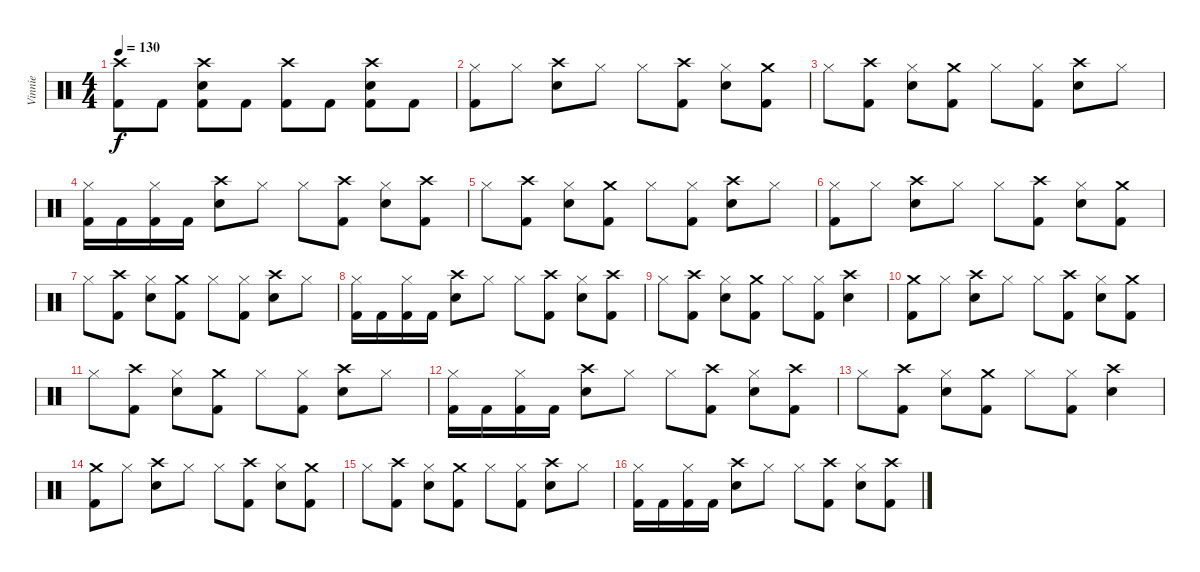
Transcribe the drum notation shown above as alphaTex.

\track ("Vinnie" "Vinnie") {instrument percussion}
\staff {score}
\articulation defaults
\ts (4 4)
\tempo 130
\clef neutral
\ks c
("Crash high (hit)" "Kick (hit) 2").8{dy f} "Kick (hit) 2".8 ("Crash high (hit)" "Snare (hit) 2" "Kick (hit) 2").8 "Kick (hit) 2".8 ("Crash high (hit)" "Kick (hit) 2").8 "Kick (hit) 2".8 ("Crash high (hit)" "Snare (hit) 2" "Kick (hit) 2").8 "Kick (hit) 2".8 |
("Hi-Hat (closed)" "Kick (hit) 2").8 "Hi-Hat (closed)".8 ("Crash high (hit)" "Snare (hit) 2").8 "Hi-Hat (closed)".8 "Hi-Hat (closed)".8 ("Crash high (hit)" "Kick (hit) 2").8 ("Hi-Hat (closed)" "Snare (hit) 2").8 ("Crash medium (hit)" "Kick (hit) 2").8 |
"Hi-Hat (closed)".8 ("Crash high (hit)" "Kick (hit) 2").8 ("Hi-Hat (closed)" "Snare (hit) 2").8 ("Crash medium (hit)" "Kick (hit) 2").8 "Hi-Hat (closed)".8 ("Hi-Hat (closed)" "Kick (hit) 2").8 ("Crash high (hit)" "Snare (hit) 2").8 "Hi-Hat (closed)".8 |
("Hi-Hat (closed)" "Kick (hit) 2").16 "Kick (hit) 2".16 ("Hi-Hat (closed)" "Kick (hit) 2").16 "Kick (hit) 2".16 ("Crash high (hit)" "Snare (hit) 2").8 "Hi-Hat (closed)".8 "Hi-Hat (closed)".8 ("Crash high (hit)" "Kick (hit) 2").8 ("Hi-Hat (closed)" "Snare (hit) 2").8 ("Crash high (hit)" "Kick (hit) 2").8 |
"Hi-Hat (closed)".8 ("Crash high (hit)" "Kick (hit) 2").8 ("Hi-Hat (closed)" "Snare (hit) 2").8 ("Crash medium (hit)" "Kick (hit) 2").8 "Hi-Hat (closed)".8 ("Hi-Hat (closed)" "Kick (hit) 2").8 ("Crash high (hit)" "Snare (hit) 2").8 "Hi-Hat (closed)".8 |
("Hi-Hat (closed)" "Kick (hit) 2").8 "Hi-Hat (closed)".8 ("Crash high (hit)" "Snare (hit) 2").8 "Hi-Hat (closed)".8 "Hi-Hat (closed)".8 ("Crash high (hit)" "Kick (hit) 2").8 ("Hi-Hat (closed)" "Snare (hit) 2").8 ("Crash medium (hit)" "Kick (hit) 2").8 |
"Hi-Hat (closed)".8 ("Crash high (hit)" "Kick (hit) 2").8 ("Hi-Hat (closed)" "Snare (hit) 2").8 ("Crash medium (hit)" "Kick (hit) 2").8 "Hi-Hat (closed)".8 ("Hi-Hat (closed)" "Kick (hit) 2").8 ("Crash high (hit)" "Snare (hit) 2").8 "Hi-Hat (closed)".8 |
("Hi-Hat (closed)" "Kick (hit) 2").16 "Kick (hit) 2".16 ("Hi-Hat (closed)" "Kick (hit) 2").16 "Kick (hit) 2".16 ("Crash high (hit)" "Snare (hit) 2").8 "Hi-Hat (closed)".8 "Hi-Hat (closed)".8 ("Crash high (hit)" "Kick (hit) 2").8 ("Hi-Hat (closed)" "Snare (hit) 2").8 ("Crash high (hit)" "Kick (hit) 2").8 |
"Hi-Hat (closed)".8 ("Crash high (hit)" "Kick (hit) 2").8 ("Hi-Hat (closed)" "Snare (hit) 2").8 ("Crash medium (hit)" "Kick (hit) 2").8 "Hi-Hat (closed)".8 ("Hi-Hat (closed)" "Kick (hit) 2").8 ("Crash high (hit)" "Snare (hit) 2").4 |
("Crash medium (hit)" "Kick (hit) 2").8 "Hi-Hat (closed)".8 ("Crash high (hit)" "Snare (hit) 2").8 "Hi-Hat (closed)".8 "Hi-Hat (closed)".8 ("Crash high (hit)" "Kick (hit) 2").8 ("Hi-Hat (closed)" "Snare (hit) 2").8 ("Crash medium (hit)" "Kick (hit) 2").8 |
"Hi-Hat (closed)".8 ("Crash high (hit)" "Kick (hit) 2").8 ("Hi-Hat (closed)" "Snare (hit) 2").8 ("Crash medium (hit)" "Kick (hit) 2").8 "Hi-Hat (closed)".8 ("Hi-Hat (closed)" "Kick (hit) 2").8 ("Crash high (hit)" "Snare (hit) 2").8 "Hi-Hat (closed)".8 |
("Hi-Hat (closed)" "Kick (hit) 2").16 "Kick (hit) 2".16 ("Hi-Hat (closed)" "Kick (hit) 2").16 "Kick (hit) 2".16 ("Crash high (hit)" "Snare (hit) 2").8 "Hi-Hat (closed)".8 "Hi-Hat (closed)".8 ("Crash high (hit)" "Kick (hit) 2").8 ("Hi-Hat (closed)" "Snare (hit) 2").8 ("Crash high (hit)" "Kick (hit) 2").8 |
"Hi-Hat (closed)".8 ("Crash high (hit)" "Kick (hit) 2").8 ("Hi-Hat (closed)" "Snare (hit) 2").8 ("Crash medium (hit)" "Kick (hit) 2").8 "Hi-Hat (closed)".8 ("Hi-Hat (closed)" "Kick (hit) 2").8 ("Crash high (hit)" "Snare (hit) 2").4 |
("Crash medium (hit)" "Kick (hit) 2").8 "Hi-Hat (closed)".8 ("Crash high (hit)" "Snare (hit) 2").8 "Hi-Hat (closed)".8 "Hi-Hat (closed)".8 ("Crash high (hit)" "Kick (hit) 2").8 ("Hi-Hat (closed)" "Snare (hit) 2").8 ("Crash medium (hit)" "Kick (hit) 2").8 |
"Hi-Hat (closed)".8 ("Crash high (hit)" "Kick (hit) 2").8 ("Hi-Hat (closed)" "Snare (hit) 2").8 ("Crash medium (hit)" "Kick (hit) 2").8 "Hi-Hat (closed)".8 ("Hi-Hat (closed)" "Kick (hit) 2").8 ("Crash high (hit)" "Snare (hit) 2").8 "Hi-Hat (closed)".8 |
("Hi-Hat (closed)" "Kick (hit) 2").16 "Kick (hit) 2".16 ("Hi-Hat (closed)" "Kick (hit) 2").16 "Kick (hit) 2".16 ("Crash high (hit)" "Snare (hit) 2").8 "Hi-Hat (closed)".8 "Hi-Hat (closed)".8 ("Crash high (hit)" "Kick (hit) 2").8 ("Hi-Hat (closed)" "Snare (hit) 2").8 ("Crash high (hit)" "Kick (hit) 2").8
